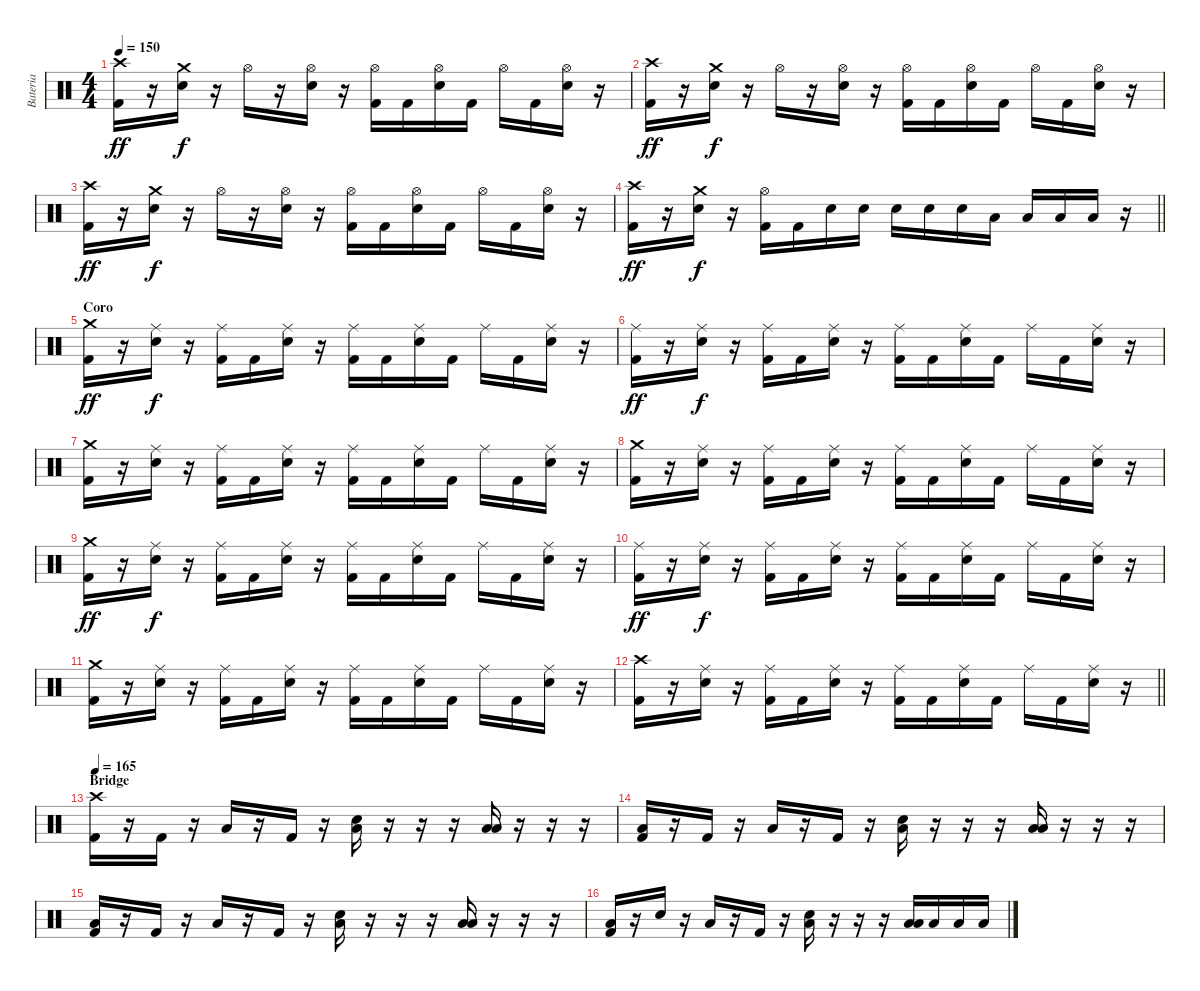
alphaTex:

\track ("Bateria" "Bateria") {instrument percussion}
\staff {score}
\articulation defaults
\ts (4 4)
\tempo 150
\clef neutral
\ks c
("Crash high (hit)" "Kick (hit) 2").16{dy ff} r.16 ("Crash medium (hit)" "Electric Snare (hit)").16{dy f} r.16 "Hi-Hat (open)".16 r.16 ("Hi-Hat (open)" "Electric Snare (hit)").16 r.16 ("Hi-Hat (open)" "Kick (hit) 2").16 "Kick (hit) 2".16 ("Hi-Hat (open)" "Electric Snare (hit)").16 "Kick (hit) 2".16 "Hi-Hat (open)".16 "Kick (hit) 2".16 ("Hi-Hat (open)" "Electric Snare (hit)").16 r.16 |
("Crash high (hit)" "Kick (hit) 2").16{dy ff} r.16 ("Crash medium (hit)" "Electric Snare (hit)").16{dy f} r.16 "Hi-Hat (open)".16 r.16 ("Hi-Hat (open)" "Electric Snare (hit)").16 r.16 ("Hi-Hat (open)" "Kick (hit) 2").16 "Kick (hit) 2".16 ("Hi-Hat (open)" "Electric Snare (hit)").16 "Kick (hit) 2".16 "Hi-Hat (open)".16 "Kick (hit) 2".16 ("Hi-Hat (open)" "Electric Snare (hit)").16 r.16 |
("Crash high (hit)" "Kick (hit) 2").16{dy ff} r.16 ("Crash medium (hit)" "Electric Snare (hit)").16{dy f} r.16 "Hi-Hat (open)".16 r.16 ("Hi-Hat (open)" "Electric Snare (hit)").16 r.16 ("Hi-Hat (open)" "Kick (hit) 2").16 "Kick (hit) 2".16 ("Hi-Hat (open)" "Electric Snare (hit)").16 "Kick (hit) 2".16 "Hi-Hat (open)".16 "Kick (hit) 2".16 ("Hi-Hat (open)" "Electric Snare (hit)").16 r.16 |
\barLineRight lightlight
("Crash high (hit)" "Kick (hit) 2").16{dy ff} r.16 ("Crash medium (hit)" "Electric Snare (hit)").16{dy f} r.16 ("Hi-Hat (open)" "Kick (hit) 2").16 "Kick (hit) 2".16 "Electric Snare (hit)".16 "Electric Snare (hit)".16 "Electric Snare (hit)".16 "Electric Snare (hit)".16 "Electric Snare (hit)".16 "Low Tom (hit)".16 "Low Tom (hit)".16 "Low Floor Tom (hit)".16 "Low Floor Tom (hit)".16 r.16 |
\section ("" "Coro")
("Crash medium (hit)" "Kick (hit) 2").16{dy ff} r.16 ("Ride (middle)" "Electric Snare (hit)").16{dy f} r.16 ("Ride (middle)" "Kick (hit) 2").16 "Kick (hit) 2".16 ("Ride (middle)" "Electric Snare (hit)").16 r.16 ("Ride (middle)" "Kick (hit) 2").16 "Kick (hit) 2".16 ("Ride (middle)" "Electric Snare (hit)").16 "Kick (hit) 2".16 "Ride (middle)".16 "Kick (hit) 2".16 ("Ride (middle)" "Electric Snare (hit)").16 r.16 |
("Ride (middle)" "Kick (hit) 2").16{dy ff} r.16 ("Ride (middle)" "Electric Snare (hit)").16{dy f} r.16 ("Ride (middle)" "Kick (hit) 2").16 "Kick (hit) 2".16 ("Ride (middle)" "Electric Snare (hit)").16 r.16 ("Ride (middle)" "Kick (hit) 2").16 "Kick (hit) 2".16 ("Ride (middle)" "Electric Snare (hit)").16 "Kick (hit) 2".16 "Ride (middle)".16 "Kick (hit) 2".16 ("Ride (middle)" "Electric Snare (hit)").16 r.16 |
("Crash medium (hit)" "Kick (hit) 2").16 r.16 ("Ride (middle)" "Electric Snare (hit)").16 r.16 ("Ride (middle)" "Kick (hit) 2").16 "Kick (hit) 2".16 ("Ride (middle)" "Electric Snare (hit)").16 r.16 ("Ride (middle)" "Kick (hit) 2").16 "Kick (hit) 2".16 ("Ride (middle)" "Electric Snare (hit)").16 "Kick (hit) 2".16 "Ride (middle)".16 "Kick (hit) 2".16 ("Ride (middle)" "Electric Snare (hit)").16 r.16 |
("Crash medium (hit)" "Kick (hit) 2").16 r.16 ("Ride (middle)" "Electric Snare (hit)").16 r.16 ("Ride (middle)" "Kick (hit) 2").16 "Kick (hit) 2".16 ("Ride (middle)" "Electric Snare (hit)").16 r.16 ("Ride (middle)" "Kick (hit) 2").16 "Kick (hit) 2".16 ("Ride (middle)" "Electric Snare (hit)").16 "Kick (hit) 2".16 "Ride (middle)".16 "Kick (hit) 2".16 ("Ride (middle)" "Electric Snare (hit)").16 r.16 |
("Crash medium (hit)" "Kick (hit) 2").16{dy ff} r.16 ("Ride (middle)" "Electric Snare (hit)").16{dy f} r.16 ("Ride (middle)" "Kick (hit) 2").16 "Kick (hit) 2".16 ("Ride (middle)" "Electric Snare (hit)").16 r.16 ("Ride (middle)" "Kick (hit) 2").16 "Kick (hit) 2".16 ("Ride (middle)" "Electric Snare (hit)").16 "Kick (hit) 2".16 "Ride (middle)".16 "Kick (hit) 2".16 ("Ride (middle)" "Electric Snare (hit)").16 r.16 |
("Ride (middle)" "Kick (hit) 2").16{dy ff} r.16 ("Ride (middle)" "Electric Snare (hit)").16{dy f} r.16 ("Ride (middle)" "Kick (hit) 2").16 "Kick (hit) 2".16 ("Ride (middle)" "Electric Snare (hit)").16 r.16 ("Ride (middle)" "Kick (hit) 2").16 "Kick (hit) 2".16 ("Ride (middle)" "Electric Snare (hit)").16 "Kick (hit) 2".16 "Ride (middle)".16 "Kick (hit) 2".16 ("Ride (middle)" "Electric Snare (hit)").16 r.16 |
("Crash medium (hit)" "Kick (hit) 2").16 r.16 ("Ride (middle)" "Electric Snare (hit)").16 r.16 ("Ride (middle)" "Kick (hit) 2").16 "Kick (hit) 2".16 ("Ride (middle)" "Electric Snare (hit)").16 r.16 ("Ride (middle)" "Kick (hit) 2").16 "Kick (hit) 2".16 ("Ride (middle)" "Electric Snare (hit)").16 "Kick (hit) 2".16 "Ride (middle)".16 "Kick (hit) 2".16 ("Ride (middle)" "Electric Snare (hit)").16 r.16 |
\barLineRight lightlight
("Crash high (hit)" "Kick (hit) 2").16 r.16 ("Ride (middle)" "Electric Snare (hit)").16 r.16 ("Ride (middle)" "Kick (hit) 2").16 "Kick (hit) 2".16 ("Ride (middle)" "Electric Snare (hit)").16 r.16 ("Ride (middle)" "Kick (hit) 2").16 "Kick (hit) 2".16 ("Ride (middle)" "Electric Snare (hit)").16 "Kick (hit) 2".16 "Ride (middle)".16 "Kick (hit) 2".16 ("Ride (middle)" "Electric Snare (hit)").16 r.16 |
\section ("" "Bridge")
\tempo 165
("Crash high (hit)" "Kick (hit) 2").16 r.16 "Kick (hit) 2".16 r.16 "Low Floor Tom (hit)".16 r.16 "Kick (hit) 2".16 r.16 ("Low Floor Tom (hit)" "Electric Snare (hit)").16 r.16 r.16 r.16 ("Low Floor Tom (hit)" "Low Tom (hit)").16 r.16 r.16 r.16 |
("Low Floor Tom (hit)" "Kick (hit) 2").16 r.16 "Kick (hit) 2".16 r.16 "Low Floor Tom (hit)".16 r.16 "Kick (hit) 2".16 r.16 ("Low Floor Tom (hit)" "Electric Snare (hit)").16 r.16 r.16 r.16 ("Low Floor Tom (hit)" "Low Tom (hit)").16 r.16 r.16 r.16 |
("Low Floor Tom (hit)" "Kick (hit) 2").16 r.16 "Kick (hit) 2".16 r.16 "Low Floor Tom (hit)".16 r.16 "Kick (hit) 2".16 r.16 ("Low Floor Tom (hit)" "Electric Snare (hit)").16 r.16 r.16 r.16 ("Low Floor Tom (hit)" "Low Tom (hit)").16 r.16 r.16 r.16 |
("Low Floor Tom (hit)" "Kick (hit) 2").16 r.16 "Electric Snare (hit)".16 r.16 "Low Floor Tom (hit)".16 r.16 "Kick (hit) 2".16 r.16 ("Low Floor Tom (hit)" "Electric Snare (hit)").16 r.16 r.16 r.16 ("Low Floor Tom (hit)" "Low Tom (hit)").16 "Low Tom (hit)".16 "Low Floor Tom (hit)".16 "Low Floor Tom (hit)".16
